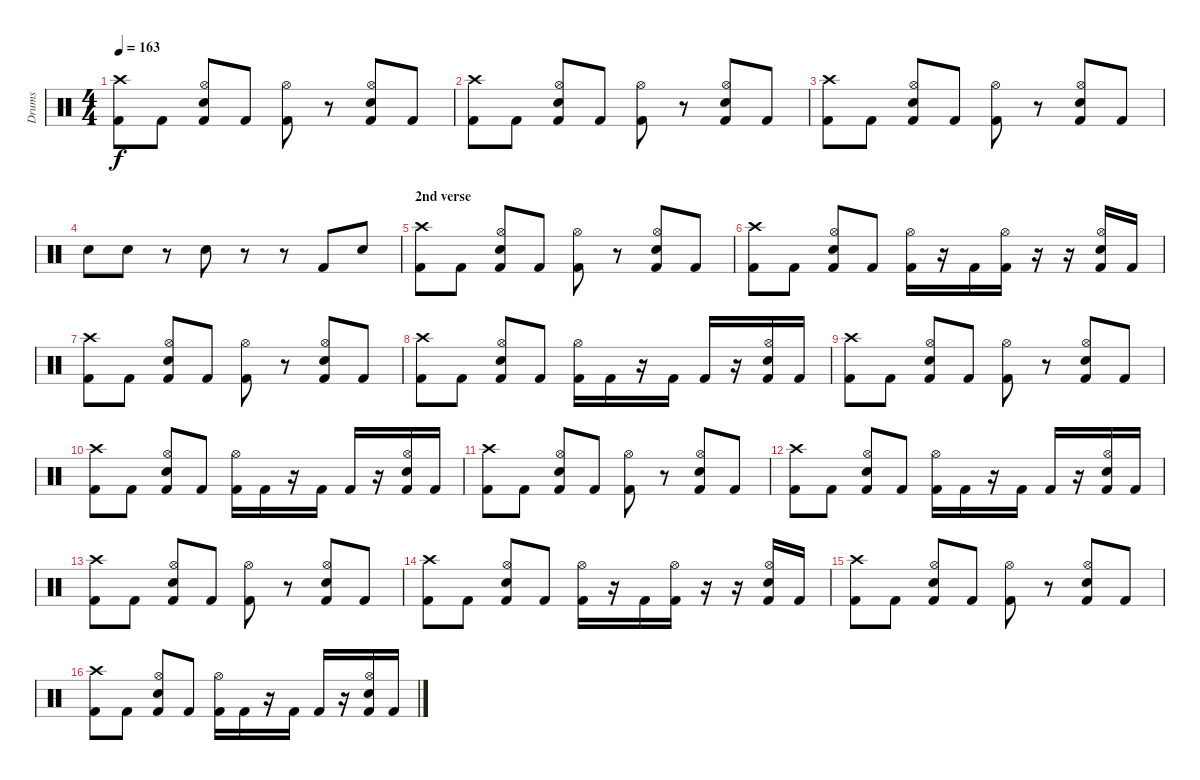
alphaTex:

\track ("Drums" "Drums") {instrument percussion}
\staff {score}
\articulation defaults
\ts (4 4)
\tempo 163
\clef neutral
\ks c
("Crash high (hit)" "Kick (hit) 2").8{dy f} "Kick (hit) 2".8 ("Hi-Hat (open)" "Kick (hit) 2" "Snare (hit) 2").8 "Kick (hit) 2".8 ("Hi-Hat (open)" "Kick (hit) 2").8 r.8 ("Hi-Hat (open)" "Kick (hit) 2" "Snare (hit) 2").8 "Kick (hit) 2".8 |
("Crash high (hit)" "Kick (hit) 2").8 "Kick (hit) 2".8 ("Hi-Hat (open)" "Kick (hit) 2" "Snare (hit) 2").8 "Kick (hit) 2".8 ("Hi-Hat (open)" "Kick (hit) 2").8 r.8 ("Hi-Hat (open)" "Kick (hit) 2" "Snare (hit) 2").8 "Kick (hit) 2".8 |
("Crash high (hit)" "Kick (hit) 2").8 "Kick (hit) 2".8 ("Hi-Hat (open)" "Kick (hit) 2" "Snare (hit) 2").8 "Kick (hit) 2".8 ("Hi-Hat (open)" "Kick (hit) 2").8 r.8 ("Hi-Hat (open)" "Kick (hit) 2" "Snare (hit) 2").8 "Kick (hit) 2".8 |
"Snare (hit) 2".8 "Snare (hit) 2".8 r.8 "Snare (hit) 2".8 r.8 r.8 "Kick (hit) 2".8 "Snare (hit) 2".8 |
\section ("" "2nd verse")
("Crash high (hit)" "Kick (hit) 2").8 "Kick (hit) 2".8 ("Hi-Hat (open)" "Kick (hit) 2" "Snare (hit) 2").8 "Kick (hit) 2".8 ("Hi-Hat (open)" "Kick (hit) 2").8 r.8 ("Hi-Hat (open)" "Kick (hit) 2" "Snare (hit) 2").8 "Kick (hit) 2".8 |
("Crash high (hit)" "Kick (hit) 2").8 "Kick (hit) 2".8 ("Hi-Hat (open)" "Kick (hit) 2" "Snare (hit) 2").8 "Kick (hit) 2".8 ("Hi-Hat (open)" "Kick (hit) 2").16 r.16 "Kick (hit) 2".16 ("Hi-Hat (open)" "Kick (hit) 2").16 r.16 r.16 ("Hi-Hat (open)" "Kick (hit) 2" "Snare (hit) 2").16 "Kick (hit) 2".16 |
("Crash high (hit)" "Kick (hit) 2").8 "Kick (hit) 2".8 ("Hi-Hat (open)" "Kick (hit) 2" "Snare (hit) 2").8 "Kick (hit) 2".8 ("Hi-Hat (open)" "Kick (hit) 2").8 r.8 ("Hi-Hat (open)" "Kick (hit) 2" "Snare (hit) 2").8 "Kick (hit) 2".8 |
("Crash high (hit)" "Kick (hit) 2").8 "Kick (hit) 2".8 ("Hi-Hat (open)" "Kick (hit) 2" "Snare (hit) 2").8 "Kick (hit) 2".8 ("Hi-Hat (open)" "Kick (hit) 2").16 "Kick (hit) 2".16 r.16 "Kick (hit) 2".16 "Kick (hit) 2".16 r.16 ("Hi-Hat (open)" "Kick (hit) 2" "Snare (hit) 2").16 "Kick (hit) 2".16 |
("Crash high (hit)" "Kick (hit) 2").8 "Kick (hit) 2".8 ("Hi-Hat (open)" "Kick (hit) 2" "Snare (hit) 2").8 "Kick (hit) 2".8 ("Hi-Hat (open)" "Kick (hit) 2").8 r.8 ("Hi-Hat (open)" "Kick (hit) 2" "Snare (hit) 2").8 "Kick (hit) 2".8 |
("Crash high (hit)" "Kick (hit) 2").8 "Kick (hit) 2".8 ("Hi-Hat (open)" "Kick (hit) 2" "Snare (hit) 2").8 "Kick (hit) 2".8 ("Hi-Hat (open)" "Kick (hit) 2").16 "Kick (hit) 2".16 r.16 "Kick (hit) 2".16 "Kick (hit) 2".16 r.16 ("Hi-Hat (open)" "Kick (hit) 2" "Snare (hit) 2").16 "Kick (hit) 2".16 |
("Crash high (hit)" "Kick (hit) 2").8 "Kick (hit) 2".8 ("Hi-Hat (open)" "Kick (hit) 2" "Snare (hit) 2").8 "Kick (hit) 2".8 ("Hi-Hat (open)" "Kick (hit) 2").8 r.8 ("Hi-Hat (open)" "Kick (hit) 2" "Snare (hit) 2").8 "Kick (hit) 2".8 |
("Crash high (hit)" "Kick (hit) 2").8 "Kick (hit) 2".8 ("Hi-Hat (open)" "Kick (hit) 2" "Snare (hit) 2").8 "Kick (hit) 2".8 ("Hi-Hat (open)" "Kick (hit) 2").16 "Kick (hit) 2".16 r.16 "Kick (hit) 2".16 "Kick (hit) 2".16 r.16 ("Hi-Hat (open)" "Kick (hit) 2" "Snare (hit) 2").16 "Kick (hit) 2".16 |
("Crash high (hit)" "Kick (hit) 2").8 "Kick (hit) 2".8 ("Hi-Hat (open)" "Kick (hit) 2" "Snare (hit) 2").8 "Kick (hit) 2".8 ("Hi-Hat (open)" "Kick (hit) 2").8 r.8 ("Hi-Hat (open)" "Kick (hit) 2" "Snare (hit) 2").8 "Kick (hit) 2".8 |
("Crash high (hit)" "Kick (hit) 2").8 "Kick (hit) 2".8 ("Hi-Hat (open)" "Kick (hit) 2" "Snare (hit) 2").8 "Kick (hit) 2".8 ("Hi-Hat (open)" "Kick (hit) 2").16 r.16 "Kick (hit) 2".16 ("Hi-Hat (open)" "Kick (hit) 2").16 r.16 r.16 ("Hi-Hat (open)" "Kick (hit) 2" "Snare (hit) 2").16 "Kick (hit) 2".16 |
("Crash high (hit)" "Kick (hit) 2").8 "Kick (hit) 2".8 ("Hi-Hat (open)" "Kick (hit) 2" "Snare (hit) 2").8 "Kick (hit) 2".8 ("Hi-Hat (open)" "Kick (hit) 2").8 r.8 ("Hi-Hat (open)" "Kick (hit) 2" "Snare (hit) 2").8 "Kick (hit) 2".8 |
("Crash high (hit)" "Kick (hit) 2").8 "Kick (hit) 2".8 ("Hi-Hat (open)" "Kick (hit) 2" "Snare (hit) 2").8 "Kick (hit) 2".8 ("Hi-Hat (open)" "Kick (hit) 2").16 "Kick (hit) 2".16 r.16 "Kick (hit) 2".16 "Kick (hit) 2".16 r.16 ("Hi-Hat (open)" "Kick (hit) 2" "Snare (hit) 2").16 "Kick (hit) 2".16
